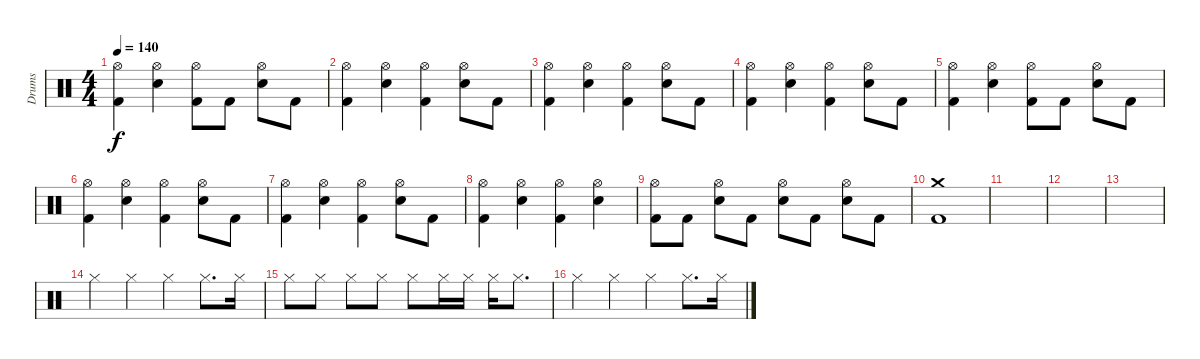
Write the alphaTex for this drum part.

\track ("Drums" "Drums") {instrument percussion}
\staff {score}
\articulation defaults
\ts (4 4)
\tempo 140
\clef neutral
\ks c
("Hi-Hat (open)" "Kick (hit) 2").4{dy f} ("Hi-Hat (open)" "Electric Snare (hit)").4 ("Hi-Hat (open)" "Kick (hit) 2").8 "Kick (hit) 2".8 ("Hi-Hat (open)" "Electric Snare (hit)").8 "Kick (hit) 2".8 |
("Hi-Hat (open)" "Kick (hit) 2").4 ("Hi-Hat (open)" "Electric Snare (hit)").4 ("Hi-Hat (open)" "Kick (hit) 2").4 ("Hi-Hat (open)" "Electric Snare (hit)").8 "Kick (hit) 2".8 |
("Hi-Hat (open)" "Kick (hit) 2").4 ("Hi-Hat (open)" "Electric Snare (hit)").4 ("Hi-Hat (open)" "Kick (hit) 2").4 ("Hi-Hat (open)" "Electric Snare (hit)").8 "Kick (hit) 2".8 |
("Hi-Hat (open)" "Kick (hit) 2").4 ("Hi-Hat (open)" "Electric Snare (hit)").4 ("Hi-Hat (open)" "Kick (hit) 2").4 ("Hi-Hat (open)" "Electric Snare (hit)").8 "Kick (hit) 2".8 |
("Hi-Hat (open)" "Kick (hit) 2").4 ("Hi-Hat (open)" "Electric Snare (hit)").4 ("Hi-Hat (open)" "Kick (hit) 2").8 "Kick (hit) 2".8 ("Hi-Hat (open)" "Electric Snare (hit)").8 "Kick (hit) 2".8 |
("Hi-Hat (open)" "Kick (hit) 2").4 ("Hi-Hat (open)" "Electric Snare (hit)").4 ("Hi-Hat (open)" "Kick (hit) 2").4 ("Hi-Hat (open)" "Electric Snare (hit)").8 "Kick (hit) 2".8 |
("Hi-Hat (open)" "Kick (hit) 2").4 ("Hi-Hat (open)" "Electric Snare (hit)").4 ("Hi-Hat (open)" "Kick (hit) 2").4 ("Hi-Hat (open)" "Electric Snare (hit)").8 "Kick (hit) 2".8 |
("Hi-Hat (open)" "Kick (hit) 2").4 ("Hi-Hat (open)" "Electric Snare (hit)").4 ("Hi-Hat (open)" "Kick (hit) 2").4 ("Hi-Hat (open)" "Electric Snare (hit)").4 |
("Hi-Hat (open)" "Kick (hit) 2").8 "Kick (hit) 2".8 ("Hi-Hat (open)" "Electric Snare (hit)").8 "Kick (hit) 2".8 ("Hi-Hat (open)" "Electric Snare (hit)").8 "Kick (hit) 2".8 ("Hi-Hat (open)" "Electric Snare (hit)").8 "Kick (hit) 2".8 |
("Crash medium (hit)" "Kick (hit) 2").1 |
|
|
|
"Hi-Hat (closed)".4 "Hi-Hat (closed)".4 "Hi-Hat (closed)".4 "Hi-Hat (closed)".8{d} "Hi-Hat (closed)".16 |
"Hi-Hat (closed)".8 "Hi-Hat (closed)".8 "Hi-Hat (closed)".8 "Hi-Hat (closed)".8 "Hi-Hat (closed)".8 "Hi-Hat (closed)".16 "Hi-Hat (closed)".16 "Hi-Hat (closed)".16 "Hi-Hat (closed)".8{d} |
"Hi-Hat (closed)".4 "Hi-Hat (closed)".4 "Hi-Hat (closed)".4 "Hi-Hat (closed)".8{d} "Hi-Hat (closed)".16
